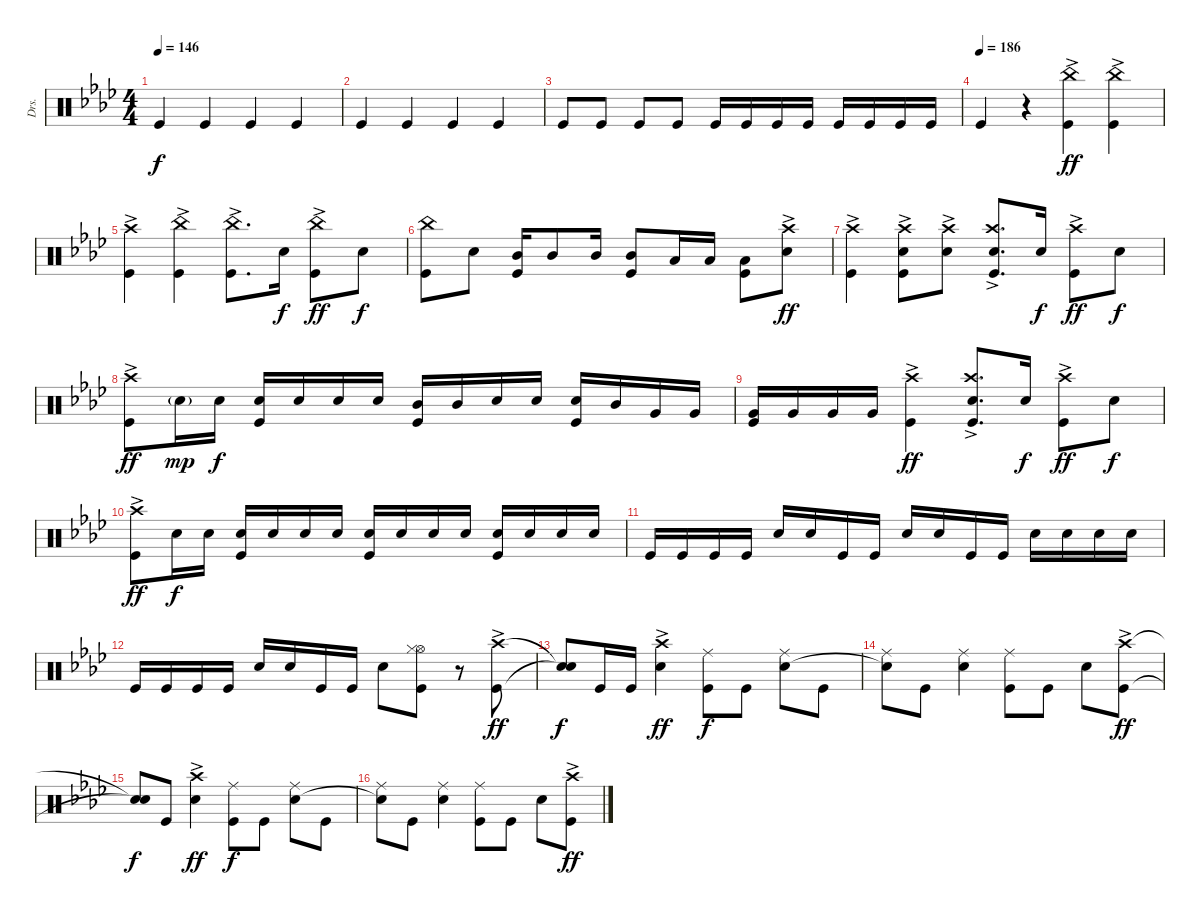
\track ("Drs." "Drs.") {instrument percussion}
\staff {score}
\articulation defaults
\ts (4 4)
\tempo 146
\clef neutral
\ks ab "Kick (hit)".4{dy f} "Kick (hit)".4 "Kick (hit)".4 "Kick (hit)".4
|
"Kick (hit)".4 "Kick (hit)".4 "Kick (hit)".4 "Kick (hit)".4 |
"Kick (hit)".8 "Kick (hit)".8 "Kick (hit)".8 "Kick (hit)".8 "Kick (hit)".16 "Kick (hit)".16 "Kick (hit)".16 "Kick (hit)".16 "Kick (hit)".16 "Kick (hit)".16 "Kick (hit)".16 "Kick (hit)".16 |
\tempo (186)
"Kick (hit)".4 r.4 ("China (hit)"{ac} "Kick (hit)").4{dy ff} ("China (hit)"{ac} "Kick (hit)").4 |
("Crash high (hit)"{ac} "Kick (hit)").4 ("China (hit)"{ac} "Kick (hit)").4 ("China (hit)"{ac} "Kick (hit)").8{d} "Snare (hit) 2".16{dy f} ("China (hit)"{ac} "Kick (hit)").8{dy ff} "Snare (hit) 2".8{dy f} |
("China (hit)" "Kick (hit)").8 "Snare (hit) 2".8 ("Mid Tom (hit)" "Kick (hit)").16 "Mid Tom (hit)".8 "Mid Tom (hit)".16 ("Mid Tom (hit)" "Kick (hit)").8 "Low Tom (hit)".16 "Low Tom (hit)".16 ("Low Tom (hit)" "Kick (hit)").8 ("Crash high (hit)"{ac} "Snare (hit) 2").8{dy ff} |
("Crash high (hit)"{ac} "Kick (hit)").4 ("Crash high (hit)"{ac} "Snare (hit) 2" "Kick (hit)").8 ("Crash high (hit)"{ac} "Snare (hit) 2").8 ("Crash high (hit)"{ac} "Snare (hit) 2" "Kick (hit)").8{d} "Snare (hit) 2".16{dy f} ("Crash high (hit)"{ac} "Kick (hit)").8{dy ff} "Snare (hit) 2".8{dy f} |
("Crash high (hit)"{ac} "Kick (hit)").8{dy ff} "Snare (hit) 2"{g}.16{dy mp} "Snare (hit) 2".16{dy f} ("Snare (hit) 2" "Kick (hit)").16 "Snare (hit) 2".16 "Snare (hit) 2".16 "Snare (hit) 2".16 ("Mid Tom (hit)" "Kick (hit)").16 "Mid Tom (hit)".16 "Snare (hit) 2".16 "Snare (hit) 2".16 ("Snare (hit) 2" "Kick (hit)").16 "Mid Tom (hit)".16 "Very Low Tom (hit)".16 "Very Low Tom (hit)".16 |
("Very Low Tom (hit)" "Kick (hit)").16 "Very Low Tom (hit)".16 "Very Low Tom (hit)".16 "Very Low Tom (hit)".16 ("Crash high (hit)"{ac} "Kick (hit)").4{dy ff} ("Crash high (hit)"{ac} "Snare (hit) 2" "Kick (hit)").8{d} "Snare (hit) 2".16{dy f} ("Crash high (hit)"{ac} "Kick (hit)").8{dy ff} "Snare (hit) 2".8{dy f} |
("Crash high (hit)"{ac} "Kick (hit)").8{dy ff} "Snare (hit) 2".16{dy f} "Snare (hit) 2".16 ("Snare (hit) 2" "Kick (hit)").16 "Snare (hit) 2".16 "Snare (hit) 2".16 "Snare (hit) 2".16 ("Snare (hit) 2" "Kick (hit)").16 "Snare (hit) 2".16 "Snare (hit) 2".16 "Snare (hit) 2".16 ("Snare (hit) 2" "Kick (hit)").16 "Snare (hit) 2".16 "Snare (hit) 2".16 "Snare (hit) 2".16 |
"Kick (hit)".16 "Kick (hit)".16 "Kick (hit)".16 "Kick (hit)".16 "Snare (hit) 2".16 "Snare (hit) 2".16 "Kick (hit)".16 "Kick (hit)".16 "Snare (hit) 2".16 "Snare (hit) 2".16 "Kick (hit)".16 "Kick (hit)".16 "Snare (hit) 2".16 "Snare (hit) 2".16 "Snare (hit) 2".16 "Snare (hit) 2".16 |
"Kick (hit)".16 "Kick (hit)".16 "Kick (hit)".16 "Kick (hit)".16 "Snare (hit) 2".16 "Snare (hit) 2".16 "Kick (hit)".16 "Kick (hit)".16 "Snare (hit) 2".8 ("Hi-Hat (open)" "Hi-Hat (closed)" "Kick (hit)").8 r.8 ("Crash high (hit)"{ac} "Kick (hit)").8{dy ff} |
("Snare (hit)"{t} "Snare (hit)"{t}).8{dy f} "Kick (hit)".16 "Kick (hit)".16 ("Crash high (hit)"{ac} "Snare (hit) 2").4{dy ff} ("Ride (middle)" "Kick (hit)").8{dy f} "Kick (hit)".8 ("Ride (middle)" "Snare (hit) 2").8 "Kick (hit)".8 |
("Ride (middle)" "Snare (hit)"{t}).8 "Kick (hit)".8 ("Ride (middle)" "Snare (hit) 2").4 ("Ride (middle)" "Kick (hit)").8 "Kick (hit)".8 "Snare (hit) 2".8 ("Crash high (hit)"{ac} "Kick (hit)").8{dy ff} |
("Snare (hit)"{t} "Snare (hit)"{t}).8{dy f} "Kick (hit)".8 ("Crash high (hit)"{ac} "Snare (hit) 2").4{dy ff} ("Ride (middle)" "Kick (hit)").8{dy f} "Kick (hit)".8 ("Ride (middle)" "Snare (hit) 2").8 "Kick (hit)".8 |
("Ride (middle)" "Snare (hit)"{t}).8 "Kick (hit)".8 ("Ride (middle)" "Snare (hit) 2").4 ("Ride (middle)" "Kick (hit)").8 "Kick (hit)".8 "Snare (hit) 2".8 ("Crash high (hit)"{ac} "Kick (hit)").8{dy ff}
